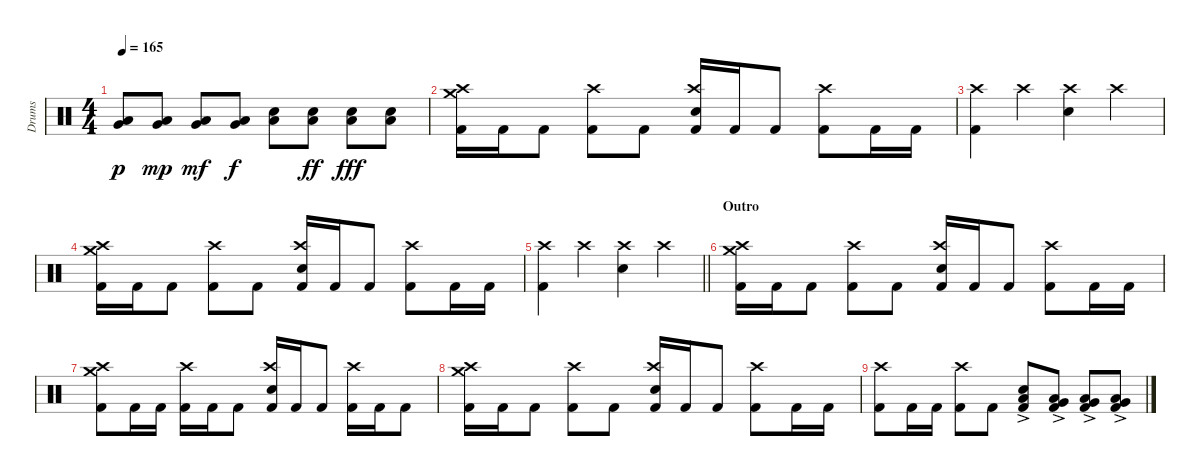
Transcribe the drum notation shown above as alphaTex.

\track ("Drums" "Drums") {instrument percussion}
\staff {score}
\articulation defaults
\ts (4 4)
\tempo 165
\clef neutral
\ks c
("Very Low Tom (hit)" "Low Floor Tom (hit)").8{dy p} ("Very Low Tom (hit)" "Low Floor Tom (hit)").8{dy mp} ("Very Low Tom (hit)" "Low Floor Tom (hit)").8{dy mf} ("Very Low Tom (hit)" "Low Floor Tom (hit)").8{dy f} ("Electric Snare (hit)" "Low Floor Tom (hit)").8 ("Electric Snare (hit)" "Low Floor Tom (hit)").8{dy ff} ("Electric Snare (hit)" "Low Floor Tom (hit)").8{dy fff} ("Electric Snare (hit)" "Low Floor Tom (hit)").8 |
("Crash high (hit)" "Crash medium (hit)" "Kick (hit) 2").16 "Kick (hit) 2".16 "Kick (hit) 2".8 ("Crash high (hit)" "Kick (hit) 2").8 "Kick (hit) 2".8 ("Crash high (hit)" "Electric Snare (hit)" "Kick (hit) 2").16 "Kick (hit) 2".16 "Kick (hit) 2".8 ("Crash high (hit)" "Kick (hit) 2").8 "Kick (hit) 2".16 "Kick (hit) 2".16 |
("Crash high (hit)" "Kick (hit) 2").4 "Crash high (hit)".4 ("Crash high (hit)" "Electric Snare (hit)").4 "Crash high (hit)".4 |
("Crash high (hit)" "Crash medium (hit)" "Kick (hit) 2").16 "Kick (hit) 2".16 "Kick (hit) 2".8 ("Crash high (hit)" "Kick (hit) 2").8 "Kick (hit) 2".8 ("Crash high (hit)" "Electric Snare (hit)" "Kick (hit) 2").16 "Kick (hit) 2".16 "Kick (hit) 2".8 ("Crash high (hit)" "Kick (hit) 2").8 "Kick (hit) 2".16 "Kick (hit) 2".16 |
\barLineRight lightlight
("Crash high (hit)" "Kick (hit) 2").4 "Crash high (hit)".4 ("Crash high (hit)" "Electric Snare (hit)").4 "Crash high (hit)".4 |
\section ("" "Outro")
("Crash high (hit)" "Crash medium (hit)" "Kick (hit) 2").16 "Kick (hit) 2".16 "Kick (hit) 2".8 ("Crash high (hit)" "Kick (hit) 2").8 "Kick (hit) 2".8 ("Crash high (hit)" "Electric Snare (hit)" "Kick (hit) 2").16 "Kick (hit) 2".16 "Kick (hit) 2".8 ("Crash high (hit)" "Kick (hit) 2").8 "Kick (hit) 2".16 "Kick (hit) 2".16 |
("Crash high (hit)" "Crash medium (hit)" "Kick (hit) 2").8 "Kick (hit) 2".16 "Kick (hit) 2".16 ("Crash high (hit)" "Kick (hit) 2").16 "Kick (hit) 2".16 "Kick (hit) 2".8 ("Crash high (hit)" "Electric Snare (hit)" "Kick (hit) 2").16 "Kick (hit) 2".16 "Kick (hit) 2".8 ("Crash high (hit)" "Kick (hit) 2").16 "Kick (hit) 2".16 "Kick (hit) 2".8 |
("Crash high (hit)" "Crash medium (hit)" "Kick (hit) 2").16 "Kick (hit) 2".16 "Kick (hit) 2".8 ("Crash high (hit)" "Kick (hit) 2").8 "Kick (hit) 2".8 ("Crash high (hit)" "Electric Snare (hit)" "Kick (hit) 2").16 "Kick (hit) 2".16 "Kick (hit) 2".8 ("Crash high (hit)" "Kick (hit) 2").8 "Kick (hit) 2".16 "Kick (hit) 2".16 |
("Crash high (hit)" "Kick (hit) 2").8 "Kick (hit) 2".16 "Kick (hit) 2".16 ("Crash high (hit)" "Kick (hit) 2").8 "Kick (hit) 2".8 ("Electric Snare (hit)"{ac} "Low Floor Tom (hit)"{ac} "Kick (hit) 2"{ac}).8 ("Very Low Tom (hit)"{ac} "Low Floor Tom (hit)"{ac} "Kick (hit) 2"{ac}).8 ("Very Low Tom (hit)"{ac} "Low Floor Tom (hit)"{ac} "Kick (hit) 2"{ac}).8 ("Very Low Tom (hit)"{ac} "Low Floor Tom (hit)"{ac} "Kick (hit) 2"{ac}).8
